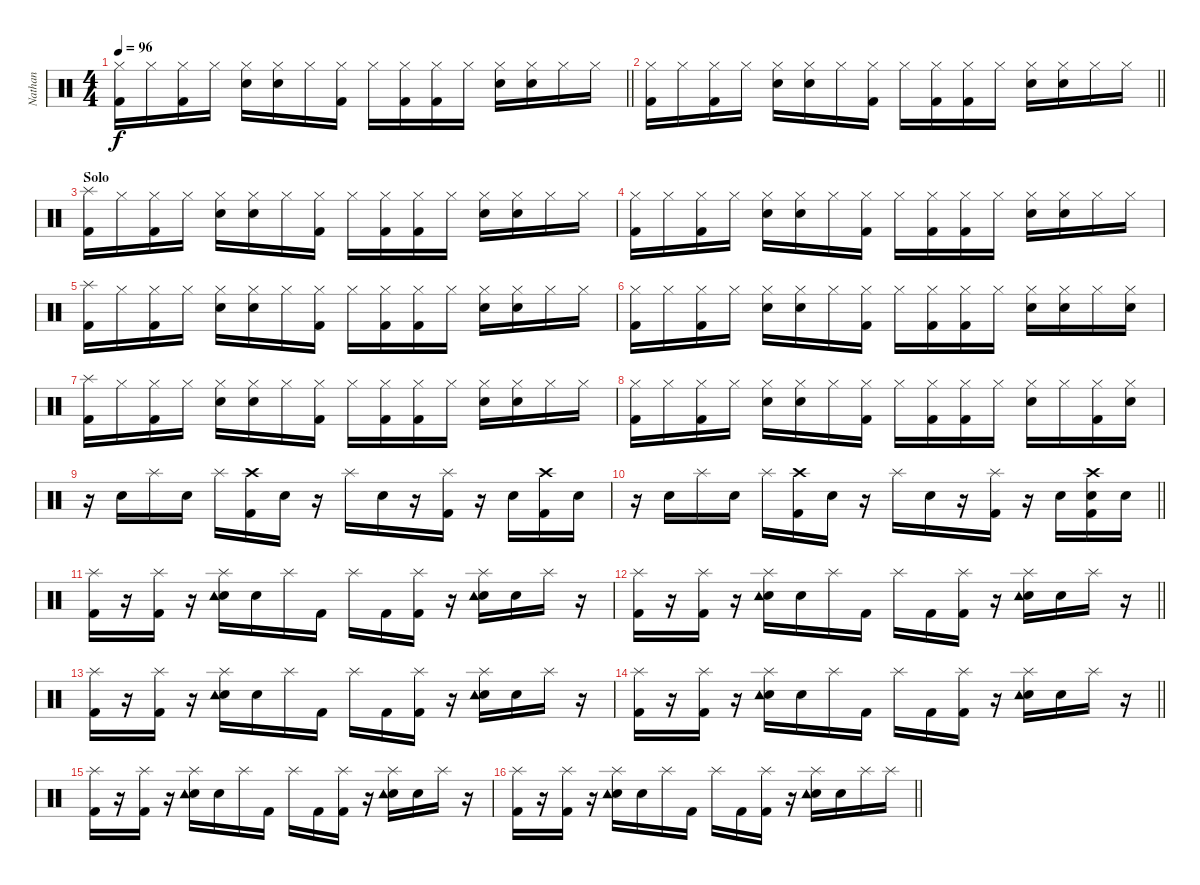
\track ("Nathan" "Nathan") {instrument percussion}
\staff {score}
\articulation defaults
\ts (4 4)
\tempo 96
\clef neutral
\barLineRight lightlight
\ks c
("Hi-Hat (closed)" "Kick (hit) 2").16{dy f} "Hi-Hat (closed)".16 ("Hi-Hat (closed)" "Kick (hit) 2").16 "Hi-Hat (closed)".16 ("Hi-Hat (closed)" "Electric Snare (hit)").16 ("Hi-Hat (closed)" "Electric Snare (hit)").16 "Hi-Hat (closed)".16 ("Hi-Hat (closed)" "Kick (hit) 2").16 "Hi-Hat (closed)".16 ("Hi-Hat (closed)" "Kick (hit) 2").16 ("Hi-Hat (closed)" "Kick (hit) 2").16 "Hi-Hat (closed)".16 ("Hi-Hat (closed)" "Electric Snare (hit)").16 ("Hi-Hat (closed)" "Electric Snare (hit)").16 "Hi-Hat (closed)".16 "Hi-Hat (closed)".16 |
\barLineRight lightlight
("Hi-Hat (closed)" "Kick (hit) 2").16 "Hi-Hat (closed)".16 ("Hi-Hat (closed)" "Kick (hit) 2").16 "Hi-Hat (closed)".16 ("Hi-Hat (closed)" "Electric Snare (hit)").16 ("Hi-Hat (closed)" "Electric Snare (hit)").16 "Hi-Hat (closed)".16 ("Hi-Hat (closed)" "Kick (hit) 2").16 "Hi-Hat (closed)".16 ("Hi-Hat (closed)" "Kick (hit) 2").16 ("Hi-Hat (closed)" "Kick (hit) 2").16 "Hi-Hat (closed)".16 ("Hi-Hat (closed)" "Electric Snare (hit)").16 ("Hi-Hat (closed)" "Electric Snare (hit)").16 "Hi-Hat (closed)".16 "Hi-Hat (closed)".16 |
\section ("" "Solo")
("Splash (hit)" "Kick (hit) 2").16 "Hi-Hat (closed)".16 ("Hi-Hat (closed)" "Kick (hit) 2").16 "Hi-Hat (closed)".16 ("Hi-Hat (closed)" "Electric Snare (hit)").16 ("Hi-Hat (closed)" "Electric Snare (hit)").16 "Hi-Hat (closed)".16 ("Hi-Hat (closed)" "Kick (hit) 2").16 "Hi-Hat (closed)".16 ("Hi-Hat (closed)" "Kick (hit) 2").16 ("Hi-Hat (closed)" "Kick (hit) 2").16 "Hi-Hat (closed)".16 ("Hi-Hat (closed)" "Electric Snare (hit)").16 ("Hi-Hat (closed)" "Electric Snare (hit)").16 "Hi-Hat (closed)".16 "Hi-Hat (closed)".16 |
("Hi-Hat (closed)" "Kick (hit) 2").16 "Hi-Hat (closed)".16 ("Hi-Hat (closed)" "Kick (hit) 2").16 "Hi-Hat (closed)".16 ("Hi-Hat (closed)" "Electric Snare (hit)").16 ("Hi-Hat (closed)" "Electric Snare (hit)").16 "Hi-Hat (closed)".16 ("Hi-Hat (closed)" "Kick (hit) 2").16 "Hi-Hat (closed)".16 ("Hi-Hat (closed)" "Kick (hit) 2").16 ("Hi-Hat (closed)" "Kick (hit) 2").16 "Hi-Hat (closed)".16 ("Hi-Hat (closed)" "Electric Snare (hit)").16 ("Hi-Hat (closed)" "Electric Snare (hit)").16 "Hi-Hat (closed)".16 "Hi-Hat (closed)".16 |
("Splash (hit)" "Kick (hit) 2").16 "Hi-Hat (closed)".16 ("Hi-Hat (closed)" "Kick (hit) 2").16 "Hi-Hat (closed)".16 ("Hi-Hat (closed)" "Electric Snare (hit)").16 ("Hi-Hat (closed)" "Electric Snare (hit)").16 "Hi-Hat (closed)".16 ("Hi-Hat (closed)" "Kick (hit) 2").16 "Hi-Hat (closed)".16 ("Hi-Hat (closed)" "Kick (hit) 2").16 ("Hi-Hat (closed)" "Kick (hit) 2").16 "Hi-Hat (closed)".16 ("Hi-Hat (closed)" "Electric Snare (hit)").16 ("Hi-Hat (closed)" "Electric Snare (hit)").16 "Hi-Hat (closed)".16 "Hi-Hat (closed)".16 |
("Hi-Hat (closed)" "Kick (hit) 2").16 "Hi-Hat (closed)".16 ("Hi-Hat (closed)" "Kick (hit) 2").16 "Hi-Hat (closed)".16 ("Hi-Hat (closed)" "Electric Snare (hit)").16 ("Hi-Hat (closed)" "Electric Snare (hit)").16 "Hi-Hat (closed)".16 ("Hi-Hat (closed)" "Kick (hit) 2").16 "Hi-Hat (closed)".16 ("Hi-Hat (closed)" "Kick (hit) 2").16 ("Hi-Hat (closed)" "Kick (hit) 2").16 "Hi-Hat (closed)".16 ("Hi-Hat (closed)" "Electric Snare (hit)").16 ("Hi-Hat (closed)" "Electric Snare (hit)").16 "Hi-Hat (closed)".16 ("Hi-Hat (closed)" "Electric Snare (hit)").16 |
("Splash (hit)" "Kick (hit) 2").16 "Hi-Hat (closed)".16 ("Hi-Hat (closed)" "Kick (hit) 2").16 "Hi-Hat (closed)".16 ("Hi-Hat (closed)" "Electric Snare (hit)").16 ("Hi-Hat (closed)" "Electric Snare (hit)").16 "Hi-Hat (closed)".16 ("Hi-Hat (closed)" "Kick (hit) 2").16 "Hi-Hat (closed)".16 ("Hi-Hat (closed)" "Kick (hit) 2").16 ("Hi-Hat (closed)" "Kick (hit) 2").16 "Hi-Hat (closed)".16 ("Hi-Hat (closed)" "Electric Snare (hit)").16 ("Hi-Hat (closed)" "Electric Snare (hit)").16 "Hi-Hat (closed)".16 "Hi-Hat (closed)".16 |
("Hi-Hat (closed)" "Kick (hit) 2").16 "Hi-Hat (closed)".16 ("Hi-Hat (closed)" "Kick (hit) 2").16 "Hi-Hat (closed)".16 ("Hi-Hat (closed)" "Electric Snare (hit)").16 ("Hi-Hat (closed)" "Electric Snare (hit)").16 "Hi-Hat (closed)".16 ("Hi-Hat (closed)" "Kick (hit) 2").16 "Hi-Hat (closed)".16 ("Hi-Hat (closed)" "Kick (hit) 2").16 ("Hi-Hat (closed)" "Kick (hit) 2").16 "Hi-Hat (closed)".16 ("Hi-Hat (closed)" "Electric Snare (hit)").16 "Hi-Hat (closed)".16 ("Hi-Hat (closed)" "Kick (hit) 2").16 ("Hi-Hat (closed)" "Electric Snare (hit)").16 |
r.16 "Electric Snare (hit)".16 "Splash (hit)".16 "Electric Snare (hit)".16 "Splash (hit)".16 ("Crash high (hit)" "Kick (hit) 2").16 "Electric Snare (hit)".16 r.16 "Splash (hit)".16 "Electric Snare (hit)".16 r.16 ("Splash (hit)" "Kick (hit) 2").16 r.16 "Electric Snare (hit)".16 ("Crash high (hit)" "Kick (hit) 2").16 "Electric Snare (hit)".16 |
\barLineRight lightlight
r.16 "Electric Snare (hit)".16 "Splash (hit)".16 "Electric Snare (hit)".16 "Splash (hit)".16 ("Crash high (hit)" "Kick (hit) 2").16 "Electric Snare (hit)".16 r.16 "Splash (hit)".16 "Electric Snare (hit)".16 r.16 ("Splash (hit)" "Kick (hit) 2").16 r.16 "Electric Snare (hit)".16 ("Crash high (hit)" "Electric Snare (hit)" "Kick (hit) 2").16 "Electric Snare (hit)".16 |
("Splash (hit)" "Kick (hit) 2").16 r.16 ("Splash (hit)" "Kick (hit) 2").16 r.16 ("Splash (hit)" "Electric Snare (hit)" "Tambourine (hit)").16 "Electric Snare (hit)".16 "Splash (hit)".16 "Kick (hit) 2".16 "Splash (hit)".16 "Kick (hit) 2".16 ("Splash (hit)" "Kick (hit) 2").16 r.16 ("Splash (hit)" "Electric Snare (hit)" "Tambourine (hit)").16 "Electric Snare (hit)".16 "Splash (hit)".16 r.16 |
\barLineRight lightlight
("Splash (hit)" "Kick (hit) 2").16 r.16 ("Splash (hit)" "Kick (hit) 2").16 r.16 ("Splash (hit)" "Electric Snare (hit)" "Tambourine (hit)").16 "Electric Snare (hit)".16 "Splash (hit)".16 "Kick (hit) 2".16 "Splash (hit)".16 "Kick (hit) 2".16 ("Splash (hit)" "Kick (hit) 2").16 r.16 ("Splash (hit)" "Electric Snare (hit)" "Tambourine (hit)").16 "Electric Snare (hit)".16 "Splash (hit)".16 r.16 |
("Splash (hit)" "Kick (hit) 2").16 r.16 ("Splash (hit)" "Kick (hit) 2").16 r.16 ("Splash (hit)" "Electric Snare (hit)" "Tambourine (hit)").16 "Electric Snare (hit)".16 "Splash (hit)".16 "Kick (hit) 2".16 "Splash (hit)".16 "Kick (hit) 2".16 ("Splash (hit)" "Kick (hit) 2").16 r.16 ("Splash (hit)" "Electric Snare (hit)" "Tambourine (hit)").16 "Electric Snare (hit)".16 "Splash (hit)".16 r.16 |
\barLineRight lightlight
("Splash (hit)" "Kick (hit) 2").16 r.16 ("Splash (hit)" "Kick (hit) 2").16 r.16 ("Splash (hit)" "Electric Snare (hit)" "Tambourine (hit)").16 "Electric Snare (hit)".16 "Splash (hit)".16 "Kick (hit) 2".16 "Splash (hit)".16 "Kick (hit) 2".16 ("Splash (hit)" "Kick (hit) 2").16 r.16 ("Splash (hit)" "Electric Snare (hit)" "Tambourine (hit)").16 "Electric Snare (hit)".16 "Splash (hit)".16 r.16 |
("Splash (hit)" "Kick (hit) 2").16 r.16 ("Splash (hit)" "Kick (hit) 2").16 r.16 ("Splash (hit)" "Electric Snare (hit)" "Tambourine (hit)").16 "Electric Snare (hit)".16 "Splash (hit)".16 "Kick (hit) 2".16 "Splash (hit)".16 "Kick (hit) 2".16 ("Splash (hit)" "Kick (hit) 2").16 r.16 ("Splash (hit)" "Electric Snare (hit)" "Tambourine (hit)").16 "Electric Snare (hit)".16 "Splash (hit)".16 r.16 |
\barLineRight lightlight
("Splash (hit)" "Kick (hit) 2").16 r.16 ("Splash (hit)" "Kick (hit) 2").16 r.16 ("Splash (hit)" "Electric Snare (hit)" "Tambourine (hit)").16 "Electric Snare (hit)".16 "Splash (hit)".16 "Kick (hit) 2".16 "Splash (hit)".16 "Kick (hit) 2".16 ("Splash (hit)" "Kick (hit) 2").16 r.16 ("Splash (hit)" "Electric Snare (hit)" "Tambourine (hit)").16 "Electric Snare (hit)".16 "Splash (hit)".16 "Splash (hit)".16
